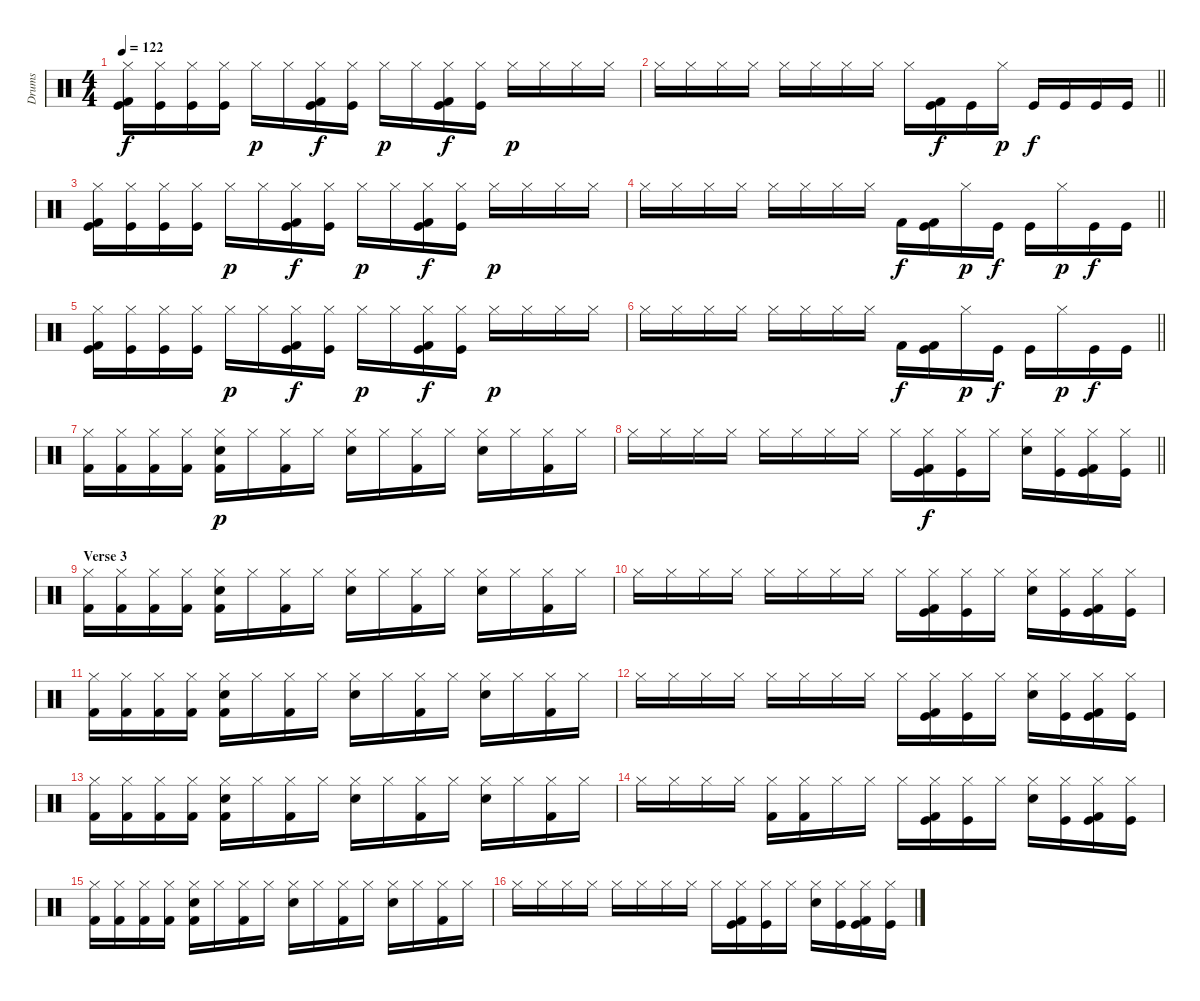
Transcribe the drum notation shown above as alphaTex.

\track ("Drums" "Drums") {instrument percussion}
\staff {score}
\articulation defaults
\ts (4 4)
\tempo 122
\clef neutral
\ks c
("Hi-Hat (closed)" "Kick (hit)" "Kick (hit) 2").16{dy f} ("Hi-Hat (closed)" "Kick (hit)").16 ("Hi-Hat (closed)" "Kick (hit)").16 ("Hi-Hat (closed)" "Kick (hit)").16 "Hi-Hat (closed)".16{dy p} "Hi-Hat (closed)".16 ("Hi-Hat (closed)" "Kick (hit)" "Kick (hit) 2").16{dy f} ("Hi-Hat (closed)" "Kick (hit)").16 "Hi-Hat (closed)".16{dy p} "Hi-Hat (closed)".16 ("Hi-Hat (closed)" "Kick (hit)" "Kick (hit) 2").16{dy f} ("Hi-Hat (closed)" "Kick (hit)").16 "Hi-Hat (closed)".16{dy p} "Hi-Hat (closed)".16 "Hi-Hat (closed)".16 "Hi-Hat (closed)".16 |
\barLineRight lightlight "Hi-Hat (closed)".16 "Hi-Hat (closed)".16 "Hi-Hat (closed)".16 "Hi-Hat (closed)".16 "Hi-Hat (closed)".16 "Hi-Hat (closed)".16 "Hi-Hat (closed)".16 "Hi-Hat (closed)".16 "Hi-Hat (closed)".16
("Kick (hit)" "Kick (hit) 2").16{dy f} "Kick (hit)".16 "Hi-Hat (closed)".16{dy p} "Kick (hit)".16{dy f} "Kick (hit)".16 "Kick (hit)".16 "Kick (hit)".16 |
("Hi-Hat (closed)" "Kick (hit)" "Kick (hit) 2").16 ("Hi-Hat (closed)" "Kick (hit)").16 ("Hi-Hat (closed)" "Kick (hit)").16 ("Hi-Hat (closed)" "Kick (hit)").16 "Hi-Hat (closed)".16{dy p} "Hi-Hat (closed)".16 ("Hi-Hat (closed)" "Kick (hit)" "Kick (hit) 2").16{dy f} ("Hi-Hat (closed)" "Kick (hit)").16 "Hi-Hat (closed)".16{dy p} "Hi-Hat (closed)".16 ("Hi-Hat (closed)" "Kick (hit)" "Kick (hit) 2").16{dy f} ("Hi-Hat (closed)" "Kick (hit)").16 "Hi-Hat (closed)".16{dy p} "Hi-Hat (closed)".16 "Hi-Hat (closed)".16 "Hi-Hat (closed)".16 |
\barLineRight lightlight "Hi-Hat (closed)".16 "Hi-Hat (closed)".16 "Hi-Hat (closed)".16 "Hi-Hat (closed)".16 "Hi-Hat (closed)".16 "Hi-Hat (closed)".16 "Hi-Hat (closed)".16 "Hi-Hat (closed)".16 "Kick (hit) 2".16{dy f}
("Kick (hit)" "Kick (hit) 2").16 "Hi-Hat (closed)".16{dy p} "Kick (hit)".16{dy f} "Kick (hit)".16 "Hi-Hat (closed)".16{dy p} "Kick (hit)".16{dy f} "Kick (hit)".16 |
("Hi-Hat (closed)" "Kick (hit)" "Kick (hit) 2").16 ("Hi-Hat (closed)" "Kick (hit)").16 ("Hi-Hat (closed)" "Kick (hit)").16 ("Hi-Hat (closed)" "Kick (hit)").16 "Hi-Hat (closed)".16{dy p} "Hi-Hat (closed)".16 ("Hi-Hat (closed)" "Kick (hit)" "Kick (hit) 2").16{dy f} ("Hi-Hat (closed)" "Kick (hit)").16 "Hi-Hat (closed)".16{dy p} "Hi-Hat (closed)".16 ("Hi-Hat (closed)" "Kick (hit)" "Kick (hit) 2").16{dy f} ("Hi-Hat (closed)" "Kick (hit)").16 "Hi-Hat (closed)".16{dy p} "Hi-Hat (closed)".16 "Hi-Hat (closed)".16 "Hi-Hat (closed)".16 |
\barLineRight lightlight "Hi-Hat (closed)".16 "Hi-Hat (closed)".16 "Hi-Hat (closed)".16 "Hi-Hat (closed)".16 "Hi-Hat (closed)".16 "Hi-Hat (closed)".16 "Hi-Hat (closed)".16 "Hi-Hat (closed)".16 "Kick (hit) 2".16{dy f}
("Kick (hit)" "Kick (hit) 2").16 "Hi-Hat (closed)".16{dy p} "Kick (hit)".16{dy f} "Kick (hit)".16 "Hi-Hat (closed)".16{dy p} "Kick (hit)".16{dy f} "Kick (hit)".16 |
("Hi-Hat (closed)" "Kick (hit) 2").16 ("Hi-Hat (closed)" "Kick (hit) 2").16 ("Hi-Hat (closed)" "Kick (hit) 2").16 ("Hi-Hat (closed)" "Kick (hit) 2").16 ("Hi-Hat (closed)" "Electric Snare (hit)" "Kick (hit) 2").16{dy p} "Hi-Hat (closed)".16 ("Hi-Hat (closed)" "Kick (hit) 2").16 "Hi-Hat (closed)".16 ("Hi-Hat (closed)" "Electric Snare (hit)").16 "Hi-Hat (closed)".16 ("Hi-Hat (closed)" "Kick (hit) 2").16 "Hi-Hat (closed)".16 ("Hi-Hat (closed)" "Electric Snare (hit)").16 "Hi-Hat (closed)".16 ("Hi-Hat (closed)" "Kick (hit) 2").16 "Hi-Hat (closed)".16 |
\barLineRight lightlight "Hi-Hat (closed)".16 "Hi-Hat (closed)".16 "Hi-Hat (closed)".16 "Hi-Hat (closed)".16 "Hi-Hat (closed)".16 "Hi-Hat (closed)".16 "Hi-Hat (closed)".16 "Hi-Hat (closed)".16 "Hi-Hat (closed)".16
("Hi-Hat (closed)" "Kick (hit)" "Kick (hit) 2").16{dy f} ("Hi-Hat (closed)" "Kick (hit)").16 "Hi-Hat (closed)".16 ("Hi-Hat (closed)" "Electric Snare (hit)").16 ("Hi-Hat (closed)" "Kick (hit)").16 ("Hi-Hat (closed)" "Kick (hit)" "Kick (hit) 2").16 ("Hi-Hat (closed)" "Kick (hit)").16 |
\section ("" "Verse 3")
("Hi-Hat (closed)" "Kick (hit) 2").16 ("Hi-Hat (closed)" "Kick (hit) 2").16 ("Hi-Hat (closed)" "Kick (hit) 2").16 ("Hi-Hat (closed)" "Kick (hit) 2").16 ("Hi-Hat (closed)" "Electric Snare (hit)" "Kick (hit) 2").16 "Hi-Hat (closed)".16 ("Hi-Hat (closed)" "Kick (hit) 2").16 "Hi-Hat (closed)".16 ("Hi-Hat (closed)" "Electric Snare (hit)").16 "Hi-Hat (closed)".16 ("Hi-Hat (closed)" "Kick (hit) 2").16 "Hi-Hat (closed)".16 ("Hi-Hat (closed)" "Electric Snare (hit)").16 "Hi-Hat (closed)".16 ("Hi-Hat (closed)" "Kick (hit) 2").16 "Hi-Hat (closed)".16 |
"Hi-Hat (closed)".16 "Hi-Hat (closed)".16 "Hi-Hat (closed)".16 "Hi-Hat (closed)".16 "Hi-Hat (closed)".16 "Hi-Hat (closed)".16 "Hi-Hat (closed)".16 "Hi-Hat (closed)".16 "Hi-Hat (closed)".16 ("Hi-Hat (closed)" "Kick (hit)" "Kick (hit) 2").16 ("Hi-Hat (closed)" "Kick (hit)").16 "Hi-Hat (closed)".16 ("Hi-Hat (closed)" "Electric Snare (hit)").16 ("Hi-Hat (closed)" "Kick (hit)").16 ("Hi-Hat (closed)" "Kick (hit)" "Kick (hit) 2").16 ("Hi-Hat (closed)" "Kick (hit)").16 |
("Hi-Hat (closed)" "Kick (hit) 2").16 ("Hi-Hat (closed)" "Kick (hit) 2").16 ("Hi-Hat (closed)" "Kick (hit) 2").16 ("Hi-Hat (closed)" "Kick (hit) 2").16 ("Hi-Hat (closed)" "Electric Snare (hit)" "Kick (hit) 2").16 "Hi-Hat (closed)".16 ("Hi-Hat (closed)" "Kick (hit) 2").16 "Hi-Hat (closed)".16 ("Hi-Hat (closed)" "Electric Snare (hit)").16 "Hi-Hat (closed)".16 ("Hi-Hat (closed)" "Kick (hit) 2").16 "Hi-Hat (closed)".16 ("Hi-Hat (closed)" "Electric Snare (hit)").16 "Hi-Hat (closed)".16 ("Hi-Hat (closed)" "Kick (hit) 2").16 "Hi-Hat (closed)".16 |
"Hi-Hat (closed)".16 "Hi-Hat (closed)".16 "Hi-Hat (closed)".16 "Hi-Hat (closed)".16 "Hi-Hat (closed)".16 "Hi-Hat (closed)".16 "Hi-Hat (closed)".16 "Hi-Hat (closed)".16 "Hi-Hat (closed)".16 ("Hi-Hat (closed)" "Kick (hit)" "Kick (hit) 2").16 ("Hi-Hat (closed)" "Kick (hit)").16 "Hi-Hat (closed)".16 ("Hi-Hat (closed)" "Electric Snare (hit)").16 ("Hi-Hat (closed)" "Kick (hit)").16 ("Hi-Hat (closed)" "Kick (hit)" "Kick (hit) 2").16 ("Hi-Hat (closed)" "Kick (hit)").16 |
("Hi-Hat (closed)" "Kick (hit) 2").16 ("Hi-Hat (closed)" "Kick (hit) 2").16 ("Hi-Hat (closed)" "Kick (hit) 2").16 ("Hi-Hat (closed)" "Kick (hit) 2").16 ("Hi-Hat (closed)" "Electric Snare (hit)" "Kick (hit) 2").16 "Hi-Hat (closed)".16 ("Hi-Hat (closed)" "Kick (hit) 2").16 "Hi-Hat (closed)".16 ("Hi-Hat (closed)" "Electric Snare (hit)").16 "Hi-Hat (closed)".16 ("Hi-Hat (closed)" "Kick (hit) 2").16 "Hi-Hat (closed)".16 ("Hi-Hat (closed)" "Electric Snare (hit)").16 "Hi-Hat (closed)".16 ("Hi-Hat (closed)" "Kick (hit) 2").16 "Hi-Hat (closed)".16 |
"Hi-Hat (closed)".16 "Hi-Hat (closed)".16 "Hi-Hat (closed)".16 "Hi-Hat (closed)".16 ("Hi-Hat (closed)" "Kick (hit) 2").16 ("Hi-Hat (closed)" "Kick (hit) 2").16 "Hi-Hat (closed)".16 "Hi-Hat (closed)".16 "Hi-Hat (closed)".16 ("Hi-Hat (closed)" "Kick (hit)" "Kick (hit) 2").16 ("Hi-Hat (closed)" "Kick (hit)").16 "Hi-Hat (closed)".16 ("Hi-Hat (closed)" "Electric Snare (hit)").16 ("Hi-Hat (closed)" "Kick (hit)").16 ("Hi-Hat (closed)" "Kick (hit)" "Kick (hit) 2").16 ("Hi-Hat (closed)" "Kick (hit)").16 |
("Hi-Hat (closed)" "Kick (hit) 2").16 ("Hi-Hat (closed)" "Kick (hit) 2").16 ("Hi-Hat (closed)" "Kick (hit) 2").16 ("Hi-Hat (closed)" "Kick (hit) 2").16 ("Hi-Hat (closed)" "Electric Snare (hit)" "Kick (hit) 2").16 "Hi-Hat (closed)".16 ("Hi-Hat (closed)" "Kick (hit) 2").16 "Hi-Hat (closed)".16 ("Hi-Hat (closed)" "Electric Snare (hit)").16 "Hi-Hat (closed)".16 ("Hi-Hat (closed)" "Kick (hit) 2").16 "Hi-Hat (closed)".16 ("Hi-Hat (closed)" "Electric Snare (hit)").16 "Hi-Hat (closed)".16 ("Hi-Hat (closed)" "Kick (hit) 2").16 "Hi-Hat (closed)".16 |
"Hi-Hat (closed)".16 "Hi-Hat (closed)".16 "Hi-Hat (closed)".16 "Hi-Hat (closed)".16 "Hi-Hat (closed)".16 "Hi-Hat (closed)".16 "Hi-Hat (closed)".16 "Hi-Hat (closed)".16 "Hi-Hat (closed)".16 ("Hi-Hat (closed)" "Kick (hit)" "Kick (hit) 2").16 ("Hi-Hat (closed)" "Kick (hit)").16 "Hi-Hat (closed)".16 ("Hi-Hat (closed)" "Electric Snare (hit)").16 ("Hi-Hat (closed)" "Kick (hit)").16 ("Hi-Hat (closed)" "Kick (hit)" "Kick (hit) 2").16 ("Hi-Hat (closed)" "Kick (hit)").16
